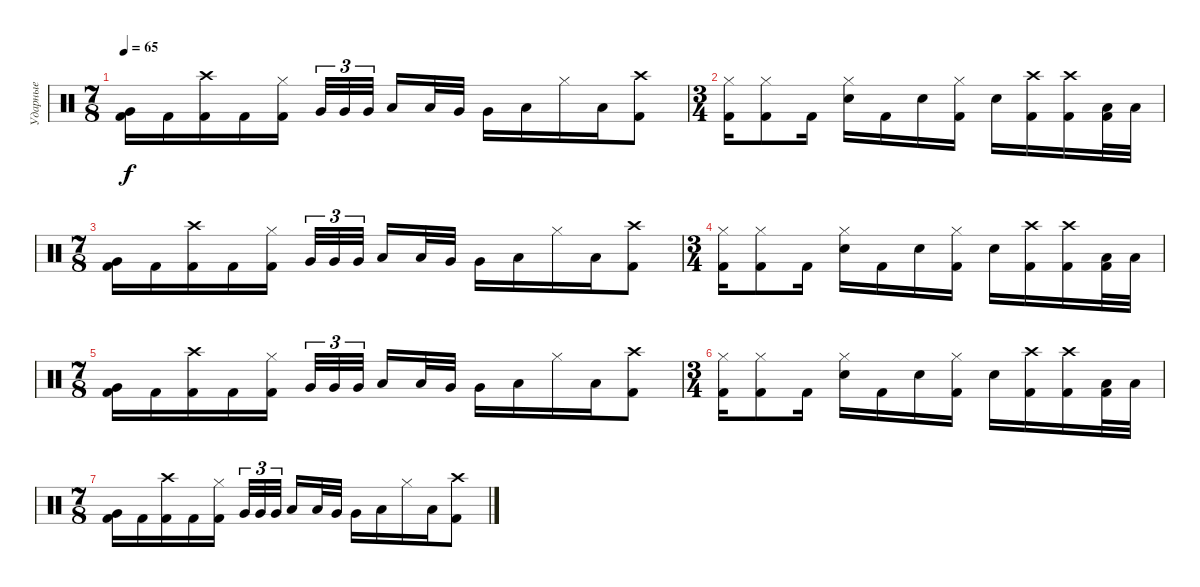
\track ("Ударные" "Ударные") {instrument percussion}
\staff {score}
\articulation defaults
\ts (7 8)
\tempo 65
\clef neutral
\ks c
("Kick (hit) 2" "Very Low Tom (hit)").16{dy f} "Kick (hit) 2".16 ("Kick (hit) 2" "Crash high (hit)").16 "Kick (hit) 2".16 ("Kick (hit) 2" "Hi-Hat (closed)").16{beam splitsecondary} "Very Low Tom (hit)".32{tu (3 2)} "Very Low Tom (hit)".32{tu (3 2)} "Very Low Tom (hit)".32{tu (3 2)} "Low Tom (hit)".16 "Low Tom (hit)".32 "Very Low Tom (hit)".32 "Very Low Tom (hit)".16 "Low Floor Tom (hit)".16 "Hi-Hat (closed)".16 "Low Floor Tom (hit)".16 ("Kick (hit) 2" "Crash high (hit)").8 |
\ts (3 4)
("Kick (hit) 2" "Hi-Hat (closed)").16 ("Kick (hit) 2" "Hi-Hat (closed)").8 "Kick (hit) 2".16 ("Snare (hit) 2" "Hi-Hat (closed)").16 "Kick (hit) 2".16 "Snare (hit) 2".16 ("Kick (hit) 2" "Hi-Hat (closed)").16 "Snare (hit) 2".16 ("Kick (hit) 2" "Crash high (hit)").16 ("Kick (hit) 2" "Crash high (hit)").16 ("Kick (hit) 2" "Low Tom (hit)").32 "Low Tom (hit)".32 |
\ts (7 8)
("Kick (hit) 2" "Very Low Tom (hit)").16 "Kick (hit) 2".16 ("Kick (hit) 2" "Crash high (hit)").16 "Kick (hit) 2".16 ("Kick (hit) 2" "Hi-Hat (closed)").16{beam splitsecondary} "Very Low Tom (hit)".32{tu (3 2)} "Very Low Tom (hit)".32{tu (3 2)} "Very Low Tom (hit)".32{tu (3 2)} "Low Tom (hit)".16 "Low Tom (hit)".32 "Very Low Tom (hit)".32 "Very Low Tom (hit)".16 "Low Floor Tom (hit)".16 "Hi-Hat (closed)".16 "Low Floor Tom (hit)".16 ("Kick (hit) 2" "Crash high (hit)").8 |
\ts (3 4)
("Kick (hit) 2" "Hi-Hat (closed)").16 ("Kick (hit) 2" "Hi-Hat (closed)").8 "Kick (hit) 2".16 ("Snare (hit) 2" "Hi-Hat (closed)").16 "Kick (hit) 2".16 "Snare (hit) 2".16 ("Kick (hit) 2" "Hi-Hat (closed)").16 "Snare (hit) 2".16 ("Kick (hit) 2" "Crash high (hit)").16 ("Kick (hit) 2" "Crash high (hit)").16 ("Kick (hit) 2" "Low Tom (hit)").32 "Low Tom (hit)".32 |
\ts (7 8)
("Kick (hit) 2" "Very Low Tom (hit)").16 "Kick (hit) 2".16 ("Kick (hit) 2" "Crash high (hit)").16 "Kick (hit) 2".16 ("Kick (hit) 2" "Hi-Hat (closed)").16{beam splitsecondary} "Very Low Tom (hit)".32{tu (3 2)} "Very Low Tom (hit)".32{tu (3 2)} "Very Low Tom (hit)".32{tu (3 2)} "Low Tom (hit)".16 "Low Tom (hit)".32 "Very Low Tom (hit)".32 "Very Low Tom (hit)".16 "Low Floor Tom (hit)".16 "Hi-Hat (closed)".16 "Low Floor Tom (hit)".16 ("Kick (hit) 2" "Crash high (hit)").8 |
\ts (3 4)
("Kick (hit) 2" "Hi-Hat (closed)").16 ("Kick (hit) 2" "Hi-Hat (closed)").8 "Kick (hit) 2".16 ("Snare (hit) 2" "Hi-Hat (closed)").16 "Kick (hit) 2".16 "Snare (hit) 2".16 ("Kick (hit) 2" "Hi-Hat (closed)").16 "Snare (hit) 2".16 ("Kick (hit) 2" "Crash high (hit)").16 ("Kick (hit) 2" "Crash high (hit)").16 ("Kick (hit) 2" "Low Tom (hit)").32 "Low Tom (hit)".32 |
\ts (7 8)
("Kick (hit) 2" "Very Low Tom (hit)").16 "Kick (hit) 2".16 ("Kick (hit) 2" "Crash high (hit)").16 "Kick (hit) 2".16 ("Kick (hit) 2" "Hi-Hat (closed)").16{beam splitsecondary} "Very Low Tom (hit)".32{tu (3 2)} "Very Low Tom (hit)".32{tu (3 2)} "Very Low Tom (hit)".32{tu (3 2)} "Low Tom (hit)".16 "Low Tom (hit)".32 "Very Low Tom (hit)".32 "Very Low Tom (hit)".16 "Low Floor Tom (hit)".16 "Hi-Hat (closed)".16 "Low Floor Tom (hit)".16 ("Kick (hit) 2" "Crash high (hit)").8
